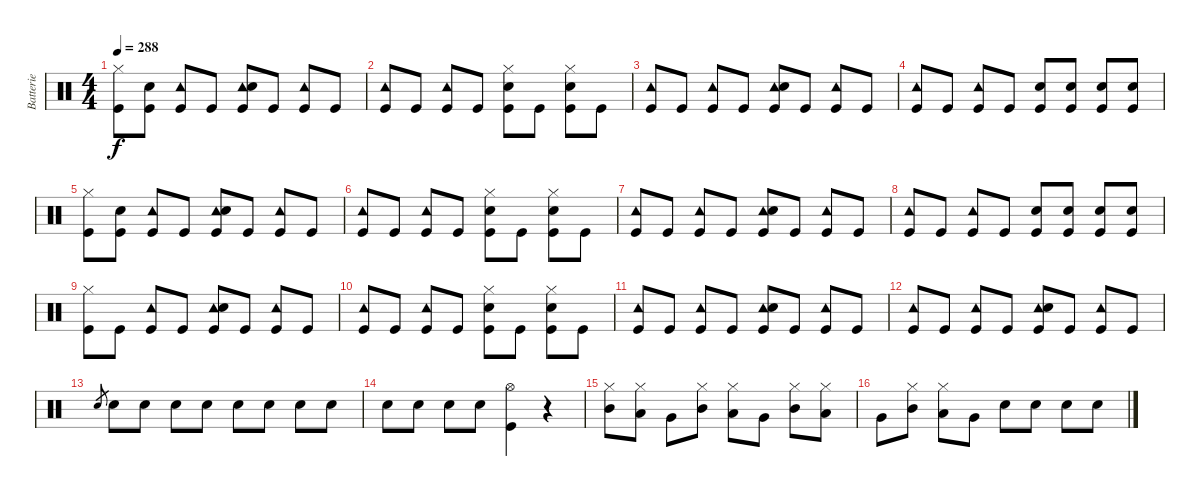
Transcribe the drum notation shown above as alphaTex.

\track ("Batterie" "Batterie") {instrument percussion}
\staff {score}
\articulation defaults
\ts (4 4)
\tempo 288
\clef neutral
\ks c
("Hi-Hat (closed)" "Kick (hit)").8{dy f} ("Snare (hit) 2" "Kick (hit)").8 ("Tambourine (hit)" "Kick (hit)").8 "Kick (hit)".8 ("Tambourine (hit)" "Snare (hit) 2" "Kick (hit)").8 "Kick (hit)".8 ("Tambourine (hit)" "Kick (hit)").8 "Kick (hit)".8 |
("Tambourine (hit)" "Kick (hit)").8 "Kick (hit)".8 ("Tambourine (hit)" "Kick (hit)").8 "Kick (hit)".8 ("Hi-Hat (closed)" "Snare (hit) 2" "Kick (hit)").8 "Kick (hit)".8 ("Hi-Hat (closed)" "Snare (hit) 2" "Kick (hit)").8 "Kick (hit)".8 |
("Tambourine (hit)" "Kick (hit)").8 "Kick (hit)".8 ("Tambourine (hit)" "Kick (hit)").8 "Kick (hit)".8 ("Tambourine (hit)" "Snare (hit) 2" "Kick (hit)").8 "Kick (hit)".8 ("Tambourine (hit)" "Kick (hit)").8 "Kick (hit)".8 |
("Tambourine (hit)" "Kick (hit)").8 "Kick (hit)".8 ("Tambourine (hit)" "Kick (hit)").8 "Kick (hit)".8 ("Snare (hit) 2" "Kick (hit)").8 ("Snare (hit) 2" "Kick (hit)").8 ("Snare (hit) 2" "Kick (hit)").8 ("Snare (hit) 2" "Kick (hit)").8 |
("Hi-Hat (closed)" "Kick (hit)").8 ("Snare (hit) 2" "Kick (hit)").8 ("Tambourine (hit)" "Kick (hit)").8 "Kick (hit)".8 ("Tambourine (hit)" "Snare (hit) 2" "Kick (hit)").8 "Kick (hit)".8 ("Tambourine (hit)" "Kick (hit)").8 "Kick (hit)".8 |
("Tambourine (hit)" "Kick (hit)").8 "Kick (hit)".8 ("Tambourine (hit)" "Kick (hit)").8 "Kick (hit)".8 ("Hi-Hat (closed)" "Snare (hit) 2" "Kick (hit)").8 "Kick (hit)".8 ("Hi-Hat (closed)" "Snare (hit) 2" "Kick (hit)").8 "Kick (hit)".8 |
("Tambourine (hit)" "Kick (hit)").8 "Kick (hit)".8 ("Tambourine (hit)" "Kick (hit)").8 "Kick (hit)".8 ("Tambourine (hit)" "Snare (hit) 2" "Kick (hit)").8 "Kick (hit)".8 ("Tambourine (hit)" "Kick (hit)").8 "Kick (hit)".8 |
("Tambourine (hit)" "Kick (hit)").8 "Kick (hit)".8 ("Tambourine (hit)" "Kick (hit)").8 "Kick (hit)".8 ("Snare (hit) 2" "Kick (hit)").8 ("Snare (hit) 2" "Kick (hit)").8 ("Snare (hit) 2" "Kick (hit)").8 ("Snare (hit) 2" "Kick (hit)").8 |
("Hi-Hat (closed)" "Kick (hit)").8 "Kick (hit)".8 ("Tambourine (hit)" "Kick (hit)").8 "Kick (hit)".8 ("Tambourine (hit)" "Snare (hit) 2" "Kick (hit)").8 "Kick (hit)".8 ("Tambourine (hit)" "Kick (hit)").8 "Kick (hit)".8 |
("Tambourine (hit)" "Kick (hit)").8 "Kick (hit)".8 ("Tambourine (hit)" "Kick (hit)").8 "Kick (hit)".8 ("Hi-Hat (closed)" "Snare (hit) 2" "Kick (hit)").8 "Kick (hit)".8 ("Hi-Hat (closed)" "Snare (hit) 2" "Kick (hit)").8 "Kick (hit)".8 |
("Tambourine (hit)" "Kick (hit)").8 "Kick (hit)".8 ("Tambourine (hit)" "Kick (hit)").8 "Kick (hit)".8 ("Tambourine (hit)" "Snare (hit) 2" "Kick (hit)").8 "Kick (hit)".8 ("Tambourine (hit)" "Kick (hit)").8 "Kick (hit)".8 |
("Tambourine (hit)" "Kick (hit)").8 "Kick (hit)".8 ("Tambourine (hit)" "Kick (hit)").8 "Kick (hit)".8 ("Tambourine (hit)" "Snare (hit) 2" "Kick (hit)").8 "Kick (hit)".8 ("Tambourine (hit)" "Kick (hit)").8 "Kick (hit)".8 |
"Snare (hit) 2".8{gr} "Snare (hit) 2".8 "Snare (hit) 2".8 "Snare (hit) 2".8 "Snare (hit) 2".8 "Snare (hit) 2".8 "Snare (hit) 2".8 "Snare (hit) 2".8 "Snare (hit) 2".8 |
"Snare (hit) 2".8 "Snare (hit) 2".8 "Snare (hit) 2".8 "Snare (hit) 2".8 ("Hi-Hat (open)" "Kick (hit)").4 r.4 |
("Hi-Hat (closed)" "Mid Tom (hit)").8 ("Hi-Hat (closed)" "Low Tom (hit)").8 "Very Low Tom (hit)".8 ("Hi-Hat (closed)" "Mid Tom (hit)").8 ("Hi-Hat (closed)" "Low Tom (hit)").8 "Very Low Tom (hit)".8 ("Hi-Hat (closed)" "Mid Tom (hit)").8 ("Hi-Hat (closed)" "Low Tom (hit)").8 |
"Very Low Tom (hit)".8 ("Hi-Hat (closed)" "Mid Tom (hit)").8 ("Hi-Hat (closed)" "Low Tom (hit)").8 "Very Low Tom (hit)".8 "Snare (hit) 2".8 "Snare (hit) 2".8 "Snare (hit) 2".8 "Snare (hit) 2".8
